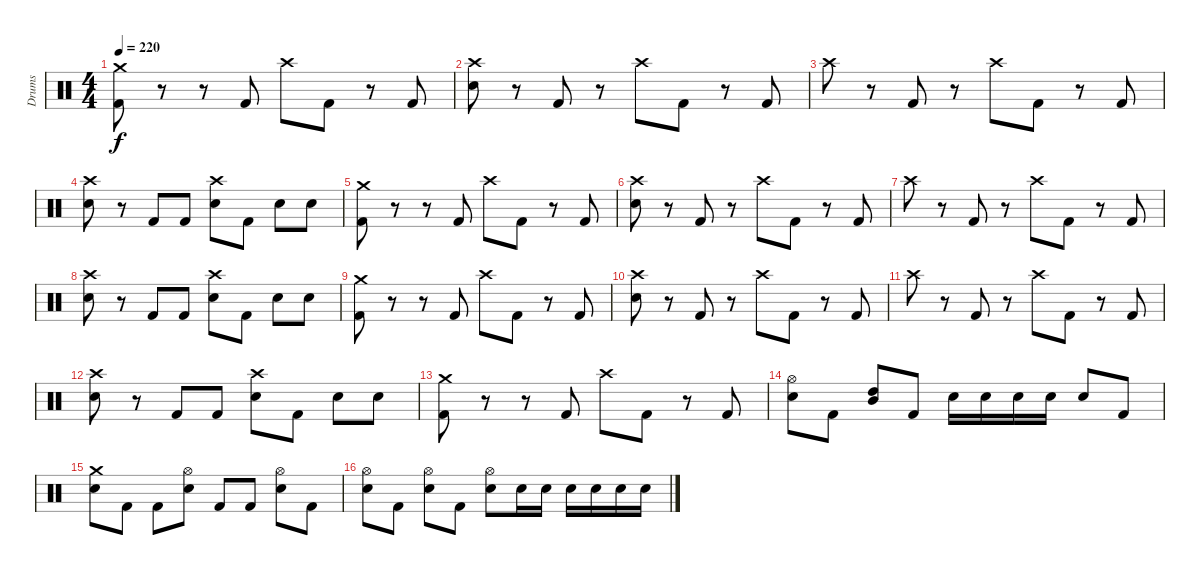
\track ("Drums" "Drums") {instrument percussion}
\staff {score}
\articulation defaults
\ts (4 4)
\tempo 220
\clef neutral
\ks c
("Crash medium (hit)" "Kick (hit) 2").8{dy f} r.8 r.8 "Kick (hit) 2".8 "Crash high (hit)".8 "Kick (hit) 2".8 r.8 "Kick (hit) 2".8 |
("Crash high (hit)" "Electric Snare (hit)").8 r.8 "Kick (hit) 2".8 r.8 "Crash high (hit)".8 "Kick (hit) 2".8 r.8 "Kick (hit) 2".8 |
"Crash high (hit)".8 r.8 "Kick (hit) 2".8 r.8 "Crash high (hit)".8 "Kick (hit) 2".8 r.8 "Kick (hit) 2".8 |
("Crash high (hit)" "Electric Snare (hit)").8 r.8 "Kick (hit) 2".8 "Kick (hit) 2".8 ("Crash high (hit)" "Electric Snare (hit)").8 "Kick (hit) 2".8 "Electric Snare (hit)".8 "Electric Snare (hit)".8 |
("Crash medium (hit)" "Kick (hit) 2").8 r.8 r.8 "Kick (hit) 2".8 "Crash high (hit)".8 "Kick (hit) 2".8 r.8 "Kick (hit) 2".8 |
("Crash high (hit)" "Electric Snare (hit)").8 r.8 "Kick (hit) 2".8 r.8 "Crash high (hit)".8 "Kick (hit) 2".8 r.8 "Kick (hit) 2".8 |
"Crash high (hit)".8 r.8 "Kick (hit) 2".8 r.8 "Crash high (hit)".8 "Kick (hit) 2".8 r.8 "Kick (hit) 2".8 |
("Crash high (hit)" "Electric Snare (hit)").8 r.8 "Kick (hit) 2".8 "Kick (hit) 2".8 ("Crash high (hit)" "Electric Snare (hit)").8 "Kick (hit) 2".8 "Electric Snare (hit)".8 "Electric Snare (hit)".8 |
("Crash medium (hit)" "Kick (hit) 2").8 r.8 r.8 "Kick (hit) 2".8 "Crash high (hit)".8 "Kick (hit) 2".8 r.8 "Kick (hit) 2".8 |
("Crash high (hit)" "Electric Snare (hit)").8 r.8 "Kick (hit) 2".8 r.8 "Crash high (hit)".8 "Kick (hit) 2".8 r.8 "Kick (hit) 2".8 |
"Crash high (hit)".8 r.8 "Kick (hit) 2".8 r.8 "Crash high (hit)".8 "Kick (hit) 2".8 r.8 "Kick (hit) 2".8 |
("Crash high (hit)" "Electric Snare (hit)").8 r.8 "Kick (hit) 2".8 "Kick (hit) 2".8 ("Crash high (hit)" "Electric Snare (hit)").8 "Kick (hit) 2".8 "Electric Snare (hit)".8 "Electric Snare (hit)".8 |
("Crash medium (hit)" "Kick (hit) 2").8 r.8 r.8 "Kick (hit) 2".8 "Crash high (hit)".8 "Kick (hit) 2".8 r.8 "Kick (hit) 2".8 |
("Hi-Hat (open)" "Electric Snare (hit)").8 "Kick (hit) 2".8 ("Mid Tom (hit)" "High Tom (hit)").8 "Kick (hit) 2".8 "Electric Snare (hit)".16 "Electric Snare (hit)".16 "Electric Snare (hit)".16 "Electric Snare (hit)".16 "Electric Snare (hit)".8 "Kick (hit) 2".8 |
("Crash medium (hit)" "Electric Snare (hit)").8 "Kick (hit) 2".8 "Kick (hit) 2".8 ("Hi-Hat (open)" "Electric Snare (hit)").8 "Kick (hit) 2".8 "Kick (hit) 2".8 ("Hi-Hat (open)" "Electric Snare (hit)").8 "Kick (hit) 2".8 |
("Hi-Hat (open)" "Electric Snare (hit)").8 "Kick (hit) 2".8 ("Hi-Hat (open)" "Electric Snare (hit)").8 "Kick (hit) 2".8 ("Hi-Hat (open)" "Electric Snare (hit)").8 "Electric Snare (hit)".16 "Electric Snare (hit)".16 "Electric Snare (hit)".16 "Electric Snare (hit)".16 "Electric Snare (hit)".16 "Electric Snare (hit)".16
